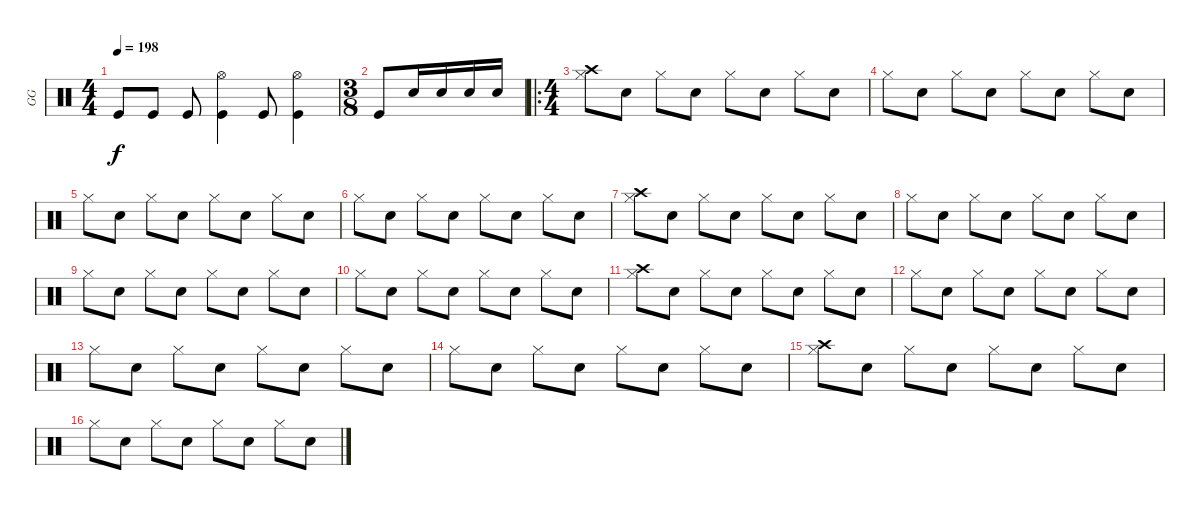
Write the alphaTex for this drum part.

\track ("GG" "GG") {instrument percussion}
\staff {score}
\articulation defaults
\ts (4 4)
\tempo 198
\clef neutral
\ks c "Kick (hit)".8{dy f} "Kick (hit)".8 "Kick (hit)".8
("Hi-Hat (open)" "Kick (hit)").4 "Kick (hit)".8 ("Hi-Hat (open)" "Kick (hit)").4 |
\ts (3 8)
"Kick (hit)".8 "Snare (hit) 2".16 "Snare (hit) 2".16 "Snare (hit) 2".16 "Snare (hit) 2".16 |
\ro
\ts (4 4)
("Crash high (hit)" "Hi-Hat (closed)").8 "Snare (hit) 2".8 "Hi-Hat (closed)".8 "Snare (hit) 2".8 "Hi-Hat (closed)".8 "Snare (hit) 2".8 "Hi-Hat (closed)".8 "Snare (hit) 2".8 |
"Hi-Hat (closed)".8 "Snare (hit) 2".8 "Hi-Hat (closed)".8 "Snare (hit) 2".8 "Hi-Hat (closed)".8 "Snare (hit) 2".8 "Hi-Hat (closed)".8 "Snare (hit) 2".8 |
"Hi-Hat (closed)".8 "Snare (hit) 2".8 "Hi-Hat (closed)".8 "Snare (hit) 2".8 "Hi-Hat (closed)".8 "Snare (hit) 2".8 "Hi-Hat (closed)".8 "Snare (hit) 2".8 |
"Hi-Hat (closed)".8 "Snare (hit) 2".8 "Hi-Hat (closed)".8 "Snare (hit) 2".8 "Hi-Hat (closed)".8 "Snare (hit) 2".8 "Hi-Hat (closed)".8 "Snare (hit) 2".8 |
("Crash high (hit)" "Hi-Hat (closed)").8 "Snare (hit) 2".8 "Hi-Hat (closed)".8 "Snare (hit) 2".8 "Hi-Hat (closed)".8 "Snare (hit) 2".8 "Hi-Hat (closed)".8 "Snare (hit) 2".8 |
"Hi-Hat (closed)".8 "Snare (hit) 2".8 "Hi-Hat (closed)".8 "Snare (hit) 2".8 "Hi-Hat (closed)".8 "Snare (hit) 2".8 "Hi-Hat (closed)".8 "Snare (hit) 2".8 |
"Hi-Hat (closed)".8 "Snare (hit) 2".8 "Hi-Hat (closed)".8 "Snare (hit) 2".8 "Hi-Hat (closed)".8 "Snare (hit) 2".8 "Hi-Hat (closed)".8 "Snare (hit) 2".8 |
"Hi-Hat (closed)".8 "Snare (hit) 2".8 "Hi-Hat (closed)".8 "Snare (hit) 2".8 "Hi-Hat (closed)".8 "Snare (hit) 2".8 "Hi-Hat (closed)".8 "Snare (hit) 2".8 |
("Crash high (hit)" "Hi-Hat (closed)").8 "Snare (hit) 2".8 "Hi-Hat (closed)".8 "Snare (hit) 2".8 "Hi-Hat (closed)".8 "Snare (hit) 2".8 "Hi-Hat (closed)".8 "Snare (hit) 2".8 |
"Hi-Hat (closed)".8 "Snare (hit) 2".8 "Hi-Hat (closed)".8 "Snare (hit) 2".8 "Hi-Hat (closed)".8 "Snare (hit) 2".8 "Hi-Hat (closed)".8 "Snare (hit) 2".8 |
"Hi-Hat (closed)".8 "Snare (hit) 2".8 "Hi-Hat (closed)".8 "Snare (hit) 2".8 "Hi-Hat (closed)".8 "Snare (hit) 2".8 "Hi-Hat (closed)".8 "Snare (hit) 2".8 |
"Hi-Hat (closed)".8 "Snare (hit) 2".8 "Hi-Hat (closed)".8 "Snare (hit) 2".8 "Hi-Hat (closed)".8 "Snare (hit) 2".8 "Hi-Hat (closed)".8 "Snare (hit) 2".8 |
("Crash high (hit)" "Hi-Hat (closed)").8 "Snare (hit) 2".8 "Hi-Hat (closed)".8 "Snare (hit) 2".8 "Hi-Hat (closed)".8 "Snare (hit) 2".8 "Hi-Hat (closed)".8 "Snare (hit) 2".8 |
"Hi-Hat (closed)".8 "Snare (hit) 2".8 "Hi-Hat (closed)".8 "Snare (hit) 2".8 "Hi-Hat (closed)".8 "Snare (hit) 2".8 "Hi-Hat (closed)".8 "Snare (hit) 2".8
